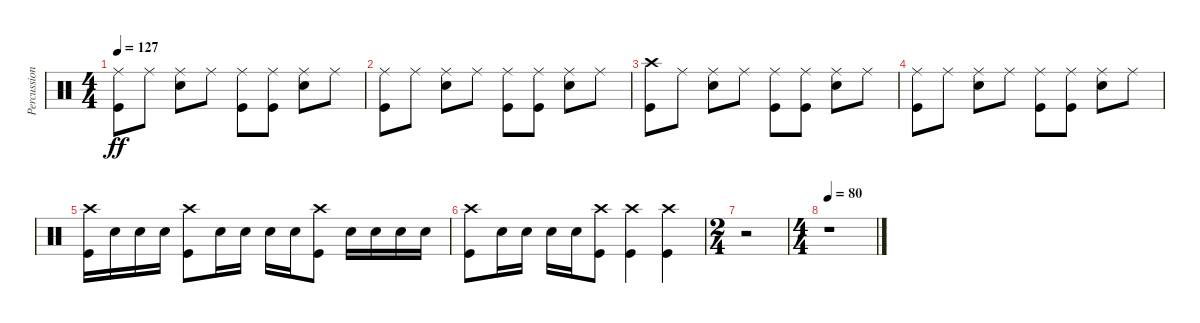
\track ("Percussion" "Percussion") {instrument percussion}
\staff {score}
\articulation defaults
\ts (4 4)
\tempo 127
\clef neutral
\ks c
("Ride (middle)" "Kick (hit)").8{dy ff} "Ride (middle)".8 ("Ride (middle)" "Snare (hit) 2").8 "Ride (middle)".8 ("Ride (middle)" "Kick (hit)").8 ("Ride (middle)" "Kick (hit)").8 ("Ride (middle)" "Snare (hit) 2").8 "Ride (middle)".8 |
("Ride (middle)" "Kick (hit)").8 "Ride (middle)".8 ("Ride (middle)" "Snare (hit) 2").8 "Ride (middle)".8 ("Ride (middle)" "Kick (hit)").8 ("Ride (middle)" "Kick (hit)").8 ("Ride (middle)" "Snare (hit) 2").8 "Ride (middle)".8 |
("Crash high (hit)" "Kick (hit)").8 "Ride (middle)".8 ("Ride (middle)" "Snare (hit) 2").8 "Ride (middle)".8 ("Ride (middle)" "Kick (hit)").8 ("Ride (middle)" "Kick (hit)").8 ("Ride (middle)" "Snare (hit) 2").8 "Ride (middle)".8 |
("Ride (middle)" "Kick (hit)").8 "Ride (middle)".8 ("Ride (middle)" "Snare (hit) 2").8 "Ride (middle)".8 ("Ride (middle)" "Kick (hit)").8 ("Ride (middle)" "Kick (hit)").8 ("Ride (middle)" "Snare (hit) 2").8 "Ride (middle)".8 |
("Crash high (hit)" "Kick (hit)").16 "Snare (hit) 2".16 "Snare (hit) 2".16 "Snare (hit) 2".16 ("Crash high (hit)" "Kick (hit)").8 "Snare (hit) 2".16 "Snare (hit) 2".16 "Snare (hit) 2".16 "Snare (hit) 2".16 ("Crash high (hit)" "Kick (hit)").8 "Snare (hit) 2".16 "Snare (hit) 2".16 "Snare (hit) 2".16 "Snare (hit) 2".16 |
("Crash high (hit)" "Kick (hit)").8 "Snare (hit) 2".16 "Snare (hit) 2".16 "Snare (hit) 2".16 "Snare (hit) 2".16 ("Crash high (hit)" "Kick (hit)").8 ("Crash high (hit)" "Kick (hit)").4 ("Crash high (hit)" "Kick (hit)").4 |
\ts (2 4)
r.2 |
\ts (4 4)
\tempo 80
r.1
